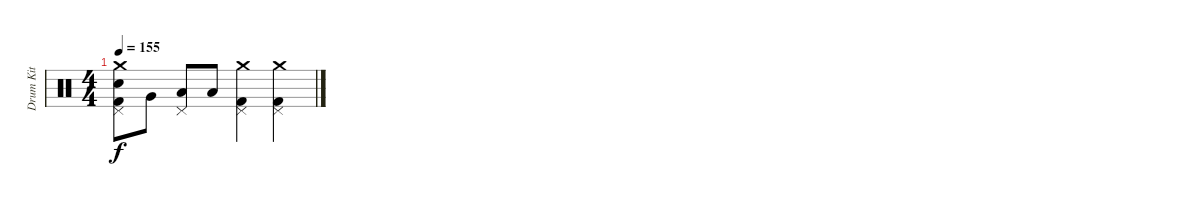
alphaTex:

\track ("Drum Kit" "Drum Kit") {instrument percussion}
\staff {score}
\articulation defaults
\ts (4 4)
\tempo 155
\clef neutral
\ks c
("Crash medium (hit)" "Pedal Hi-Hat (hit)" "Snare (hit) 2" "Kick (hit) 2").8{dy f} "Very Low Tom (hit)".8 ("Pedal Hi-Hat (hit)" "Low Floor Tom (hit)").8 "Low Floor Tom (hit)".8 ("Crash medium (hit)" "Pedal Hi-Hat (hit)" "Kick (hit) 2").4 ("Crash medium (hit)" "Pedal Hi-Hat (hit)" "Kick (hit) 2").4
